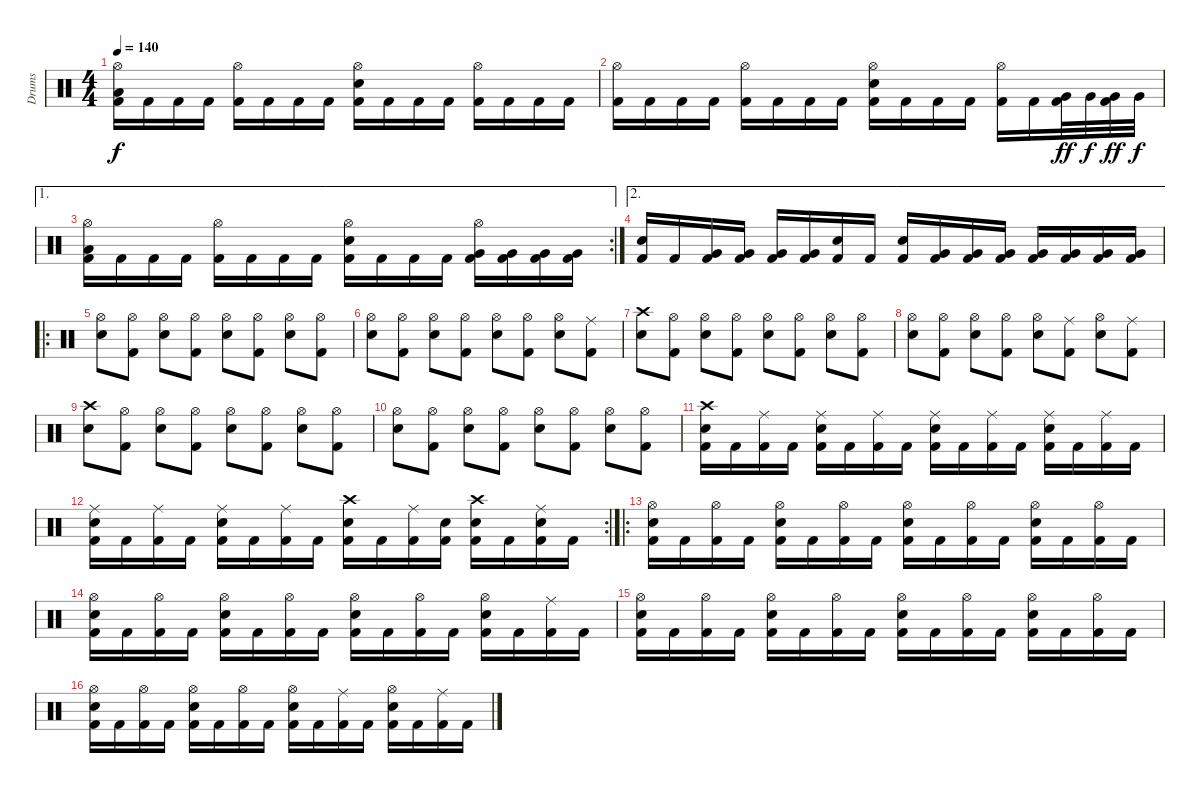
\track ("Drums" "Drums") {instrument percussion}
\staff {score}
\articulation defaults
\ts (4 4)
\tempo 140
\clef neutral
\ks c
("Hi-Hat (open)" "Low Floor Tom (hit)" "Kick (hit) 2").16{dy f} "Kick (hit) 2".16 "Kick (hit) 2".16 "Kick (hit) 2".16 ("Hi-Hat (open)" "Kick (hit) 2").16 "Kick (hit) 2".16 "Kick (hit) 2".16 "Kick (hit) 2".16 ("Hi-Hat (open)" "Snare (hit) 2" "Kick (hit) 2").16 "Kick (hit) 2".16 "Kick (hit) 2".16 "Kick (hit) 2".16 ("Hi-Hat (open)" "Kick (hit) 2").16 "Kick (hit) 2".16 "Kick (hit) 2".16 "Kick (hit) 2".16 |
("Hi-Hat (open)" "Kick (hit) 2").16 "Kick (hit) 2".16 "Kick (hit) 2".16 "Kick (hit) 2".16 ("Hi-Hat (open)" "Kick (hit) 2").16 "Kick (hit) 2".16 "Kick (hit) 2".16 "Kick (hit) 2".16 ("Hi-Hat (open)" "Snare (hit) 2" "Kick (hit) 2").16 "Kick (hit) 2".16 "Kick (hit) 2".16 "Kick (hit) 2".16 ("Hi-Hat (open)" "Kick (hit) 2").16 "Kick (hit) 2".16 ("Very Low Tom (hit)" "Kick (hit) 2").32{dy ff} "Very Low Tom (hit)".32{dy f} ("Very Low Tom (hit)" "Kick (hit) 2").32{dy ff} "Very Low Tom (hit)".32{dy f} |
\ae 1
\rc 2
("Hi-Hat (open)" "Low Floor Tom (hit)" "Kick (hit) 2").16 "Kick (hit) 2".16 "Kick (hit) 2".16 "Kick (hit) 2".16 ("Hi-Hat (open)" "Kick (hit) 2").16 "Kick (hit) 2".16 "Kick (hit) 2".16 "Kick (hit) 2".16 ("Hi-Hat (open)" "Snare (hit) 2" "Kick (hit) 2").16 "Kick (hit) 2".16 "Kick (hit) 2".16 "Kick (hit) 2".16 ("Hi-Hat (open)" "Very Low Tom (hit)" "Kick (hit) 2").16 ("Very Low Tom (hit)" "Kick (hit) 2").16 ("Very Low Tom (hit)" "Kick (hit) 2").16 ("Very Low Tom (hit)" "Kick (hit) 2").16 |
\ae 2
("Snare (hit) 2" "Kick (hit) 2").16 "Kick (hit) 2".16 ("Very Low Tom (hit)" "Kick (hit) 2").16 ("Very Low Tom (hit)" "Kick (hit) 2").16 ("Very Low Tom (hit)" "Kick (hit) 2").16 ("Very Low Tom (hit)" "Kick (hit) 2").16 ("Snare (hit) 2" "Kick (hit) 2").16 "Kick (hit) 2".16 ("Snare (hit) 2" "Kick (hit) 2").16 ("Very Low Tom (hit)" "Kick (hit) 2").16 ("Very Low Tom (hit)" "Kick (hit) 2").16 ("Very Low Tom (hit)" "Kick (hit) 2").16 ("Very Low Tom (hit)" "Kick (hit) 2").16 ("Very Low Tom (hit)" "Kick (hit) 2").16 ("Very Low Tom (hit)" "Kick (hit) 2").16 ("Very Low Tom (hit)" "Kick (hit) 2").16 |
\ro
("Hi-Hat (open)" "Snare (hit) 2").8 ("Hi-Hat (open)" "Kick (hit) 2").8 ("Hi-Hat (open)" "Snare (hit) 2").8 ("Hi-Hat (open)" "Kick (hit) 2").8 ("Hi-Hat (open)" "Snare (hit) 2").8 ("Hi-Hat (open)" "Kick (hit) 2").8 ("Hi-Hat (open)" "Snare (hit) 2").8 ("Hi-Hat (open)" "Kick (hit) 2").8 |
("Hi-Hat (open)" "Snare (hit) 2").8 ("Hi-Hat (open)" "Kick (hit) 2").8 ("Hi-Hat (open)" "Snare (hit) 2").8 ("Hi-Hat (open)" "Kick (hit) 2").8 ("Hi-Hat (open)" "Snare (hit) 2").8 ("Hi-Hat (open)" "Kick (hit) 2").8 ("Hi-Hat (open)" "Snare (hit) 2").8 ("Ride (middle)" "Kick (hit) 2").8 |
("Crash high (hit)" "Snare (hit) 2").8 ("Hi-Hat (open)" "Kick (hit) 2").8 ("Hi-Hat (open)" "Snare (hit) 2").8 ("Hi-Hat (open)" "Kick (hit) 2").8 ("Hi-Hat (open)" "Snare (hit) 2").8 ("Hi-Hat (open)" "Kick (hit) 2").8 ("Hi-Hat (open)" "Snare (hit) 2").8 ("Hi-Hat (open)" "Kick (hit) 2").8 |
("Hi-Hat (open)" "Snare (hit) 2").8 ("Hi-Hat (open)" "Kick (hit) 2").8 ("Hi-Hat (open)" "Snare (hit) 2").8 ("Hi-Hat (open)" "Kick (hit) 2").8 ("Hi-Hat (open)" "Snare (hit) 2").8 ("Ride (middle)" "Kick (hit) 2").8 ("Hi-Hat (open)" "Snare (hit) 2").8 ("Ride (middle)" "Kick (hit) 2").8 |
("Crash high (hit)" "Snare (hit) 2").8 ("Hi-Hat (open)" "Kick (hit) 2").8 ("Hi-Hat (open)" "Snare (hit) 2").8 ("Hi-Hat (open)" "Kick (hit) 2").8 ("Hi-Hat (open)" "Snare (hit) 2").8 ("Hi-Hat (open)" "Kick (hit) 2").8 ("Hi-Hat (open)" "Snare (hit) 2").8 ("Hi-Hat (open)" "Kick (hit) 2").8 |
("Hi-Hat (open)" "Snare (hit) 2").8 ("Hi-Hat (open)" "Kick (hit) 2").8 ("Hi-Hat (open)" "Snare (hit) 2").8 ("Hi-Hat (open)" "Kick (hit) 2").8 ("Hi-Hat (open)" "Snare (hit) 2").8 ("Hi-Hat (open)" "Kick (hit) 2").8 ("Hi-Hat (open)" "Snare (hit) 2").8 ("Hi-Hat (open)" "Kick (hit) 2").8 |
("Crash high (hit)" "Snare (hit) 2" "Kick (hit) 2").16 "Kick (hit) 2".16 ("Ride (middle)" "Kick (hit) 2").16 "Kick (hit) 2".16 ("Ride (middle)" "Snare (hit) 2" "Kick (hit) 2").16 "Kick (hit) 2".16 ("Ride (middle)" "Kick (hit) 2").16 "Kick (hit) 2".16 ("Ride (middle)" "Snare (hit) 2" "Kick (hit) 2").16 "Kick (hit) 2".16 ("Ride (middle)" "Kick (hit) 2").16 "Kick (hit) 2".16 ("Ride (middle)" "Snare (hit) 2" "Kick (hit) 2").16 "Kick (hit) 2".16 ("Ride (middle)" "Kick (hit) 2").16 "Kick (hit) 2".16 |
\rc 2
("Ride (middle)" "Snare (hit) 2" "Kick (hit) 2").16 "Kick (hit) 2".16 ("Ride (middle)" "Kick (hit) 2").16 "Kick (hit) 2".16 ("Ride (middle)" "Snare (hit) 2" "Kick (hit) 2").16 "Kick (hit) 2".16 ("Ride (middle)" "Kick (hit) 2").16 "Kick (hit) 2".16 ("Crash high (hit)" "Snare (hit) 2" "Kick (hit) 2").16 "Kick (hit) 2".16 ("Ride (middle)" "Kick (hit) 2").16 ("Snare (hit) 2" "Kick (hit) 2").16 ("Crash high (hit)" "Snare (hit) 2" "Kick (hit) 2").16 "Kick (hit) 2".16 ("Ride (middle)" "Snare (hit) 2" "Kick (hit) 2").16 "Kick (hit) 2".16 |
\ro
("Hi-Hat (open)" "Snare (hit) 2" "Kick (hit) 2").16 "Kick (hit) 2".16 ("Hi-Hat (open)" "Kick (hit) 2").16 "Kick (hit) 2".16 ("Hi-Hat (open)" "Snare (hit) 2" "Kick (hit) 2").16 "Kick (hit) 2".16 ("Hi-Hat (open)" "Kick (hit) 2").16 "Kick (hit) 2".16 ("Hi-Hat (open)" "Snare (hit) 2" "Kick (hit) 2").16 "Kick (hit) 2".16 ("Hi-Hat (open)" "Kick (hit) 2").16 "Kick (hit) 2".16 ("Hi-Hat (open)" "Snare (hit) 2" "Kick (hit) 2").16 "Kick (hit) 2".16 ("Hi-Hat (open)" "Kick (hit) 2").16 "Kick (hit) 2".16 |
("Hi-Hat (open)" "Snare (hit) 2" "Kick (hit) 2").16 "Kick (hit) 2".16 ("Hi-Hat (open)" "Kick (hit) 2").16 "Kick (hit) 2".16 ("Hi-Hat (open)" "Snare (hit) 2" "Kick (hit) 2").16 "Kick (hit) 2".16 ("Hi-Hat (open)" "Kick (hit) 2").16 "Kick (hit) 2".16 ("Hi-Hat (open)" "Snare (hit) 2" "Kick (hit) 2").16 "Kick (hit) 2".16 ("Hi-Hat (open)" "Kick (hit) 2").16 "Kick (hit) 2".16 ("Hi-Hat (open)" "Snare (hit) 2" "Kick (hit) 2").16 "Kick (hit) 2".16 ("Ride (middle)" "Kick (hit) 2").16 "Kick (hit) 2".16 |
("Hi-Hat (open)" "Snare (hit) 2" "Kick (hit) 2").16 "Kick (hit) 2".16 ("Hi-Hat (open)" "Kick (hit) 2").16 "Kick (hit) 2".16 ("Hi-Hat (open)" "Snare (hit) 2" "Kick (hit) 2").16 "Kick (hit) 2".16 ("Hi-Hat (open)" "Kick (hit) 2").16 "Kick (hit) 2".16 ("Hi-Hat (open)" "Snare (hit) 2" "Kick (hit) 2").16 "Kick (hit) 2".16 ("Hi-Hat (open)" "Kick (hit) 2").16 "Kick (hit) 2".16 ("Hi-Hat (open)" "Snare (hit) 2" "Kick (hit) 2").16 "Kick (hit) 2".16 ("Hi-Hat (open)" "Kick (hit) 2").16 "Kick (hit) 2".16 |
("Hi-Hat (open)" "Snare (hit) 2" "Kick (hit) 2").16 "Kick (hit) 2".16 ("Hi-Hat (open)" "Kick (hit) 2").16 "Kick (hit) 2".16 ("Hi-Hat (open)" "Snare (hit) 2" "Kick (hit) 2").16 "Kick (hit) 2".16 ("Hi-Hat (open)" "Kick (hit) 2").16 "Kick (hit) 2".16 ("Hi-Hat (open)" "Snare (hit) 2" "Kick (hit) 2").16 "Kick (hit) 2".16 ("Ride (middle)" "Kick (hit) 2").16 "Kick (hit) 2".16 ("Hi-Hat (open)" "Snare (hit) 2" "Kick (hit) 2").16 "Kick (hit) 2".16 ("Ride (middle)" "Kick (hit) 2").16 "Kick (hit) 2".16
